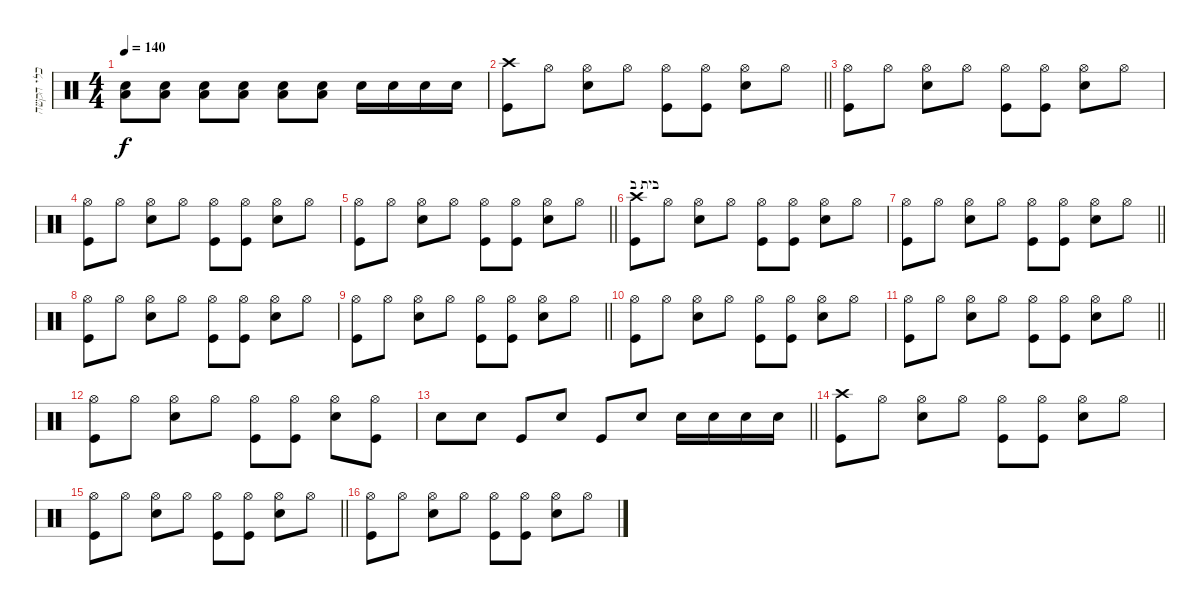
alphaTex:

\track ("כלי הקשה" "כלי הקשה") {instrument percussion}
\staff {score}
\articulation defaults
\ts (4 4)
\tempo 140
\clef neutral
\ks c
("Snare (hit) 2" "Low Floor Tom (hit)").8{dy f} ("Snare (hit) 2" "Low Floor Tom (hit)").8 ("Snare (hit) 2" "Low Floor Tom (hit)").8 ("Snare (hit) 2" "Low Floor Tom (hit)").8 ("Snare (hit) 2" "Low Floor Tom (hit)").8 ("Snare (hit) 2" "Low Floor Tom (hit)").8 "Snare (hit) 2".16 "Snare (hit) 2".16 "Snare (hit) 2".16 "Snare (hit) 2".16 |
\barLineRight lightlight
("Kick (hit)" "Crash high (hit)").8 "Hi-Hat (open)".8 ("Snare (hit) 2" "Hi-Hat (open)").8 "Hi-Hat (open)".8 ("Kick (hit)" "Hi-Hat (open)").8 ("Kick (hit)" "Hi-Hat (open)").8 ("Snare (hit) 2" "Hi-Hat (open)").8 "Hi-Hat (open)".8 |
("Kick (hit)" "Hi-Hat (open)").8 "Hi-Hat (open)".8 ("Snare (hit) 2" "Hi-Hat (open)").8 "Hi-Hat (open)".8 ("Kick (hit)" "Hi-Hat (open)").8 ("Kick (hit)" "Hi-Hat (open)").8 ("Snare (hit) 2" "Hi-Hat (open)").8 "Hi-Hat (open)".8 |
("Kick (hit)" "Hi-Hat (open)").8 "Hi-Hat (open)".8 ("Snare (hit) 2" "Hi-Hat (open)").8 "Hi-Hat (open)".8 ("Kick (hit)" "Hi-Hat (open)").8 ("Kick (hit)" "Hi-Hat (open)").8 ("Snare (hit) 2" "Hi-Hat (open)").8 "Hi-Hat (open)".8 |
\barLineRight lightlight
("Kick (hit)" "Hi-Hat (open)").8 "Hi-Hat (open)".8 ("Snare (hit) 2" "Hi-Hat (open)").8 "Hi-Hat (open)".8 ("Kick (hit)" "Hi-Hat (open)").8 ("Kick (hit)" "Hi-Hat (open)").8 ("Snare (hit) 2" "Hi-Hat (open)").8 "Hi-Hat (open)".8 |
\section ("" "בית ב")
("Kick (hit)" "Crash high (hit)").8 "Hi-Hat (open)".8 ("Snare (hit) 2" "Hi-Hat (open)").8 "Hi-Hat (open)".8 ("Kick (hit)" "Hi-Hat (open)").8 ("Kick (hit)" "Hi-Hat (open)").8 ("Snare (hit) 2" "Hi-Hat (open)").8 "Hi-Hat (open)".8 |
\barLineRight lightlight
("Kick (hit)" "Hi-Hat (open)").8 "Hi-Hat (open)".8 ("Snare (hit) 2" "Hi-Hat (open)").8 "Hi-Hat (open)".8 ("Kick (hit)" "Hi-Hat (open)").8 ("Kick (hit)" "Hi-Hat (open)").8 ("Snare (hit) 2" "Hi-Hat (open)").8 "Hi-Hat (open)".8 |
("Kick (hit)" "Hi-Hat (open)").8 "Hi-Hat (open)".8 ("Snare (hit) 2" "Hi-Hat (open)").8 "Hi-Hat (open)".8 ("Kick (hit)" "Hi-Hat (open)").8 ("Kick (hit)" "Hi-Hat (open)").8 ("Snare (hit) 2" "Hi-Hat (open)").8 "Hi-Hat (open)".8 |
\barLineRight lightlight
("Kick (hit)" "Hi-Hat (open)").8 "Hi-Hat (open)".8 ("Snare (hit) 2" "Hi-Hat (open)").8 "Hi-Hat (open)".8 ("Kick (hit)" "Hi-Hat (open)").8 ("Kick (hit)" "Hi-Hat (open)").8 ("Snare (hit) 2" "Hi-Hat (open)").8 "Hi-Hat (open)".8 |
("Kick (hit)" "Hi-Hat (open)").8 "Hi-Hat (open)".8 ("Snare (hit) 2" "Hi-Hat (open)").8 "Hi-Hat (open)".8 ("Kick (hit)" "Hi-Hat (open)").8 ("Kick (hit)" "Hi-Hat (open)").8 ("Snare (hit) 2" "Hi-Hat (open)").8 "Hi-Hat (open)".8 |
\barLineRight lightlight
("Kick (hit)" "Hi-Hat (open)").8 "Hi-Hat (open)".8 ("Snare (hit) 2" "Hi-Hat (open)").8 "Hi-Hat (open)".8 ("Kick (hit)" "Hi-Hat (open)").8 ("Kick (hit)" "Hi-Hat (open)").8 ("Snare (hit) 2" "Hi-Hat (open)").8 "Hi-Hat (open)".8 |
("Kick (hit)" "Hi-Hat (open)").8 "Hi-Hat (open)".8 ("Snare (hit) 2" "Hi-Hat (open)").8 "Hi-Hat (open)".8 ("Kick (hit)" "Hi-Hat (open)").8 ("Kick (hit)" "Hi-Hat (open)").8 ("Snare (hit) 2" "Hi-Hat (open)").8 ("Kick (hit)" "Hi-Hat (open)").8 |
\barLineRight lightlight "Snare (hit) 2".8 "Snare (hit) 2".8 "Kick (hit)".8 "Snare (hit) 2".8 "Kick (hit)".8 "Snare (hit) 2".8 "Snare (hit) 2".16 "Snare (hit) 2".16 "Snare (hit) 2".16 "Snare (hit) 2".16
|
("Kick (hit)" "Crash high (hit)").8 "Hi-Hat (open)".8 ("Snare (hit) 2" "Hi-Hat (open)").8 "Hi-Hat (open)".8 ("Kick (hit)" "Hi-Hat (open)").8 ("Kick (hit)" "Hi-Hat (open)").8 ("Snare (hit) 2" "Hi-Hat (open)").8 "Hi-Hat (open)".8 |
\barLineRight lightlight
("Kick (hit)" "Hi-Hat (open)").8 "Hi-Hat (open)".8 ("Snare (hit) 2" "Hi-Hat (open)").8 "Hi-Hat (open)".8 ("Kick (hit)" "Hi-Hat (open)").8 ("Kick (hit)" "Hi-Hat (open)").8 ("Snare (hit) 2" "Hi-Hat (open)").8 "Hi-Hat (open)".8 |
("Kick (hit)" "Hi-Hat (open)").8 "Hi-Hat (open)".8 ("Snare (hit) 2" "Hi-Hat (open)").8 "Hi-Hat (open)".8 ("Kick (hit)" "Hi-Hat (open)").8 ("Kick (hit)" "Hi-Hat (open)").8 ("Snare (hit) 2" "Hi-Hat (open)").8 "Hi-Hat (open)".8
